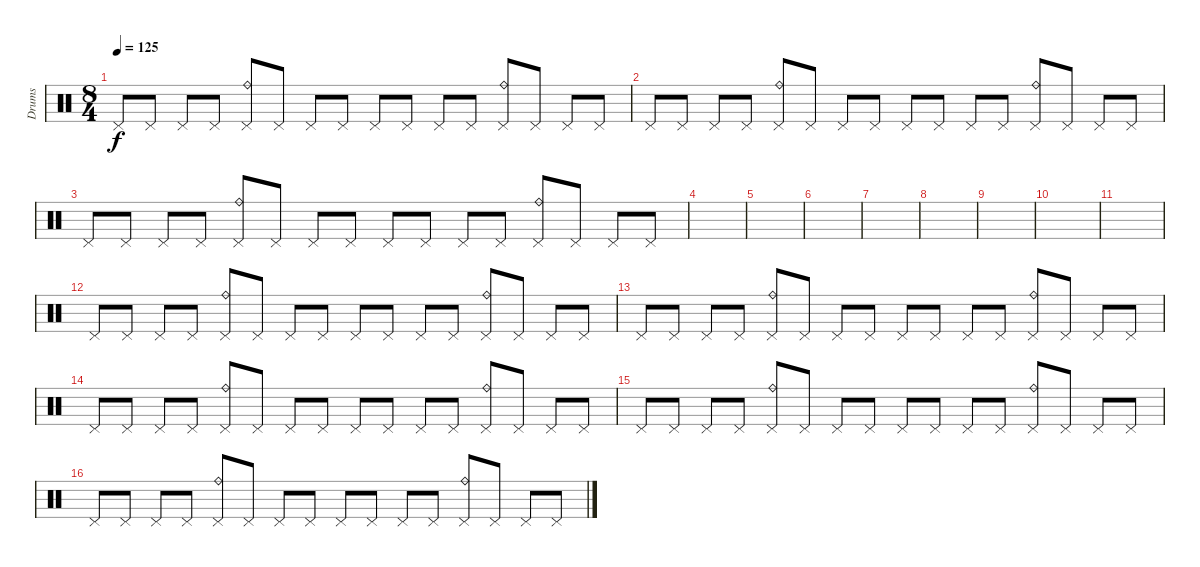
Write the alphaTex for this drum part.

\track ("Drums" "Drums") {instrument percussion}
\staff {score}
\articulation defaults
\ts (8 4)
\tempo 125
\clef neutral
\ks c "Pedal Hi-Hat (hit)".8{dy f} "Pedal Hi-Hat (hit)".8 "Pedal Hi-Hat (hit)".8 "Pedal Hi-Hat (hit)".8
("Pedal Hi-Hat (hit)" "Ride (bell)").8 "Pedal Hi-Hat (hit)".8 "Pedal Hi-Hat (hit)".8 "Pedal Hi-Hat (hit)".8 "Pedal Hi-Hat (hit)".8 "Pedal Hi-Hat (hit)".8 "Pedal Hi-Hat (hit)".8 "Pedal Hi-Hat (hit)".8 ("Pedal Hi-Hat (hit)" "Ride (bell)").8 "Pedal Hi-Hat (hit)".8 "Pedal Hi-Hat (hit)".8 "Pedal Hi-Hat (hit)".8 |
"Pedal Hi-Hat (hit)".8 "Pedal Hi-Hat (hit)".8 "Pedal Hi-Hat (hit)".8 "Pedal Hi-Hat (hit)".8 ("Pedal Hi-Hat (hit)" "Ride (bell)").8 "Pedal Hi-Hat (hit)".8 "Pedal Hi-Hat (hit)".8 "Pedal Hi-Hat (hit)".8 "Pedal Hi-Hat (hit)".8 "Pedal Hi-Hat (hit)".8 "Pedal Hi-Hat (hit)".8 "Pedal Hi-Hat (hit)".8 ("Pedal Hi-Hat (hit)" "Ride (bell)").8 "Pedal Hi-Hat (hit)".8 "Pedal Hi-Hat (hit)".8 "Pedal Hi-Hat (hit)".8 |
"Pedal Hi-Hat (hit)".8 "Pedal Hi-Hat (hit)".8 "Pedal Hi-Hat (hit)".8 "Pedal Hi-Hat (hit)".8 ("Pedal Hi-Hat (hit)" "Ride (bell)").8 "Pedal Hi-Hat (hit)".8 "Pedal Hi-Hat (hit)".8 "Pedal Hi-Hat (hit)".8 "Pedal Hi-Hat (hit)".8 "Pedal Hi-Hat (hit)".8 "Pedal Hi-Hat (hit)".8 "Pedal Hi-Hat (hit)".8 ("Pedal Hi-Hat (hit)" "Ride (bell)").8 "Pedal Hi-Hat (hit)".8 "Pedal Hi-Hat (hit)".8 "Pedal Hi-Hat (hit)".8 |
|
|
|
|
|
|
|
|
"Pedal Hi-Hat (hit)".8 "Pedal Hi-Hat (hit)".8 "Pedal Hi-Hat (hit)".8 "Pedal Hi-Hat (hit)".8 ("Pedal Hi-Hat (hit)" "Ride (bell)").8 "Pedal Hi-Hat (hit)".8 "Pedal Hi-Hat (hit)".8 "Pedal Hi-Hat (hit)".8 "Pedal Hi-Hat (hit)".8 "Pedal Hi-Hat (hit)".8 "Pedal Hi-Hat (hit)".8 "Pedal Hi-Hat (hit)".8 ("Pedal Hi-Hat (hit)" "Ride (bell)").8 "Pedal Hi-Hat (hit)".8 "Pedal Hi-Hat (hit)".8 "Pedal Hi-Hat (hit)".8 |
"Pedal Hi-Hat (hit)".8 "Pedal Hi-Hat (hit)".8 "Pedal Hi-Hat (hit)".8 "Pedal Hi-Hat (hit)".8 ("Pedal Hi-Hat (hit)" "Ride (bell)").8 "Pedal Hi-Hat (hit)".8 "Pedal Hi-Hat (hit)".8 "Pedal Hi-Hat (hit)".8 "Pedal Hi-Hat (hit)".8 "Pedal Hi-Hat (hit)".8 "Pedal Hi-Hat (hit)".8 "Pedal Hi-Hat (hit)".8 ("Pedal Hi-Hat (hit)" "Ride (bell)").8 "Pedal Hi-Hat (hit)".8 "Pedal Hi-Hat (hit)".8 "Pedal Hi-Hat (hit)".8 |
"Pedal Hi-Hat (hit)".8 "Pedal Hi-Hat (hit)".8 "Pedal Hi-Hat (hit)".8 "Pedal Hi-Hat (hit)".8 ("Pedal Hi-Hat (hit)" "Ride (bell)").8 "Pedal Hi-Hat (hit)".8 "Pedal Hi-Hat (hit)".8 "Pedal Hi-Hat (hit)".8 "Pedal Hi-Hat (hit)".8 "Pedal Hi-Hat (hit)".8 "Pedal Hi-Hat (hit)".8 "Pedal Hi-Hat (hit)".8 ("Pedal Hi-Hat (hit)" "Ride (bell)").8 "Pedal Hi-Hat (hit)".8 "Pedal Hi-Hat (hit)".8 "Pedal Hi-Hat (hit)".8 |
"Pedal Hi-Hat (hit)".8 "Pedal Hi-Hat (hit)".8 "Pedal Hi-Hat (hit)".8 "Pedal Hi-Hat (hit)".8 ("Pedal Hi-Hat (hit)" "Ride (bell)").8 "Pedal Hi-Hat (hit)".8 "Pedal Hi-Hat (hit)".8 "Pedal Hi-Hat (hit)".8 "Pedal Hi-Hat (hit)".8 "Pedal Hi-Hat (hit)".8 "Pedal Hi-Hat (hit)".8 "Pedal Hi-Hat (hit)".8 ("Pedal Hi-Hat (hit)" "Ride (bell)").8 "Pedal Hi-Hat (hit)".8 "Pedal Hi-Hat (hit)".8 "Pedal Hi-Hat (hit)".8 |
"Pedal Hi-Hat (hit)".8 "Pedal Hi-Hat (hit)".8 "Pedal Hi-Hat (hit)".8 "Pedal Hi-Hat (hit)".8 ("Pedal Hi-Hat (hit)" "Ride (bell)").8 "Pedal Hi-Hat (hit)".8 "Pedal Hi-Hat (hit)".8 "Pedal Hi-Hat (hit)".8 "Pedal Hi-Hat (hit)".8 "Pedal Hi-Hat (hit)".8 "Pedal Hi-Hat (hit)".8 "Pedal Hi-Hat (hit)".8 ("Pedal Hi-Hat (hit)" "Ride (bell)").8 "Pedal Hi-Hat (hit)".8 "Pedal Hi-Hat (hit)".8 "Pedal Hi-Hat (hit)".8
